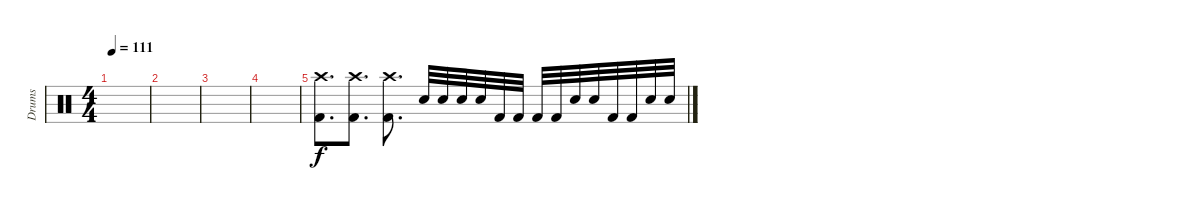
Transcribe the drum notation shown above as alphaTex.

\track ("Drums" "Drums") {instrument percussion}
\staff
\articulation defaults
\ts (4 4)
\tempo 111
\clef neutral
\ks c
|
|
|
|
("Crash high (hit)" "Kick (hit) 2").8{d} ("Crash high (hit)" "Kick (hit) 2").8{d} ("Crash high (hit)" "Kick (hit) 2").8{d} "Electric Snare (hit)".32 "Electric Snare (hit)".32 "Electric Snare (hit)".32 "Electric Snare (hit)".32 "Kick (hit) 2".32 "Kick (hit) 2".32 "Kick (hit) 2".32 "Kick (hit) 2".32 "Electric Snare (hit)".32 "Electric Snare (hit)".32 "Kick (hit) 2".32 "Kick (hit) 2".32 "Electric Snare (hit)".32 "Electric Snare (hit)".32
